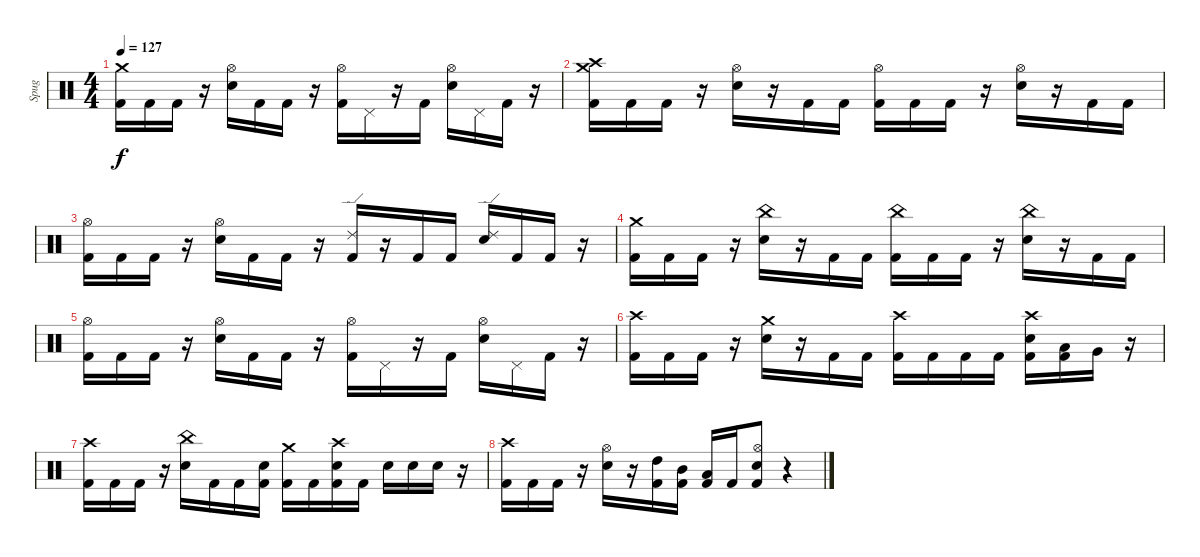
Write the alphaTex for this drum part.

\track ("Spug" "Spug") {instrument percussion}
\staff {score}
\articulation defaults
\ts (4 4)
\tempo 127
\clef neutral
\ks c
("Crash medium (hit)" "Kick (hit) 2").16{dy f} "Kick (hit) 2".16 "Kick (hit) 2".16 r.16 ("Hi-Hat (open)" "Electric Snare (hit)").16 "Kick (hit) 2".16 "Kick (hit) 2".16 r.16 ("Hi-Hat (open)" "Kick (hit) 2").16 "Pedal Hi-Hat (hit)".16 r.16 "Kick (hit) 2".16 ("Hi-Hat (open)" "Electric Snare (hit)").16 "Pedal Hi-Hat (hit)".16 "Kick (hit) 2".16 r.16 |
("Crash medium (hit)" "Crash high (hit)" "Kick (hit) 2").16 "Kick (hit) 2".16 "Kick (hit) 2".16 r.16 ("Hi-Hat (open)" "Electric Snare (hit)").16 r.16 "Kick (hit) 2".16 "Kick (hit) 2".16 ("Hi-Hat (open)" "Kick (hit) 2").16 "Kick (hit) 2".16 "Kick (hit) 2".16 r.16 ("Hi-Hat (open)" "Electric Snare (hit)").16 r.16 "Kick (hit) 2".16 "Kick (hit) 2".16 |
("Hi-Hat (open)" "Kick (hit) 2").16 "Kick (hit) 2".16 "Kick (hit) 2".16 r.16 ("Hi-Hat (open)" "Electric Snare (hit)").16 "Kick (hit) 2".16 "Kick (hit) 2".16 r.16 ("Ride (edge) 2" "Kick (hit) 2").16 r.16 "Kick (hit) 2".16 "Kick (hit) 2".16 ("Ride (edge) 2" "Electric Snare (hit)").16 "Kick (hit) 2".16 "Kick (hit) 2".16 r.16 |
("Crash medium (hit)" "Kick (hit) 2").16 "Kick (hit) 2".16 "Kick (hit) 2".16 r.16 ("China (hit)" "Electric Snare (hit)").16 r.16 "Kick (hit) 2".16 "Kick (hit) 2".16 ("China (hit)" "Kick (hit) 2").16 "Kick (hit) 2".16 "Kick (hit) 2".16 r.16 ("China (hit)" "Electric Snare (hit)").16 r.16 "Kick (hit) 2".16 "Kick (hit) 2".16 |
("Hi-Hat (open)" "Kick (hit) 2").16 "Kick (hit) 2".16 "Kick (hit) 2".16 r.16 ("Hi-Hat (open)" "Electric Snare (hit)").16 "Kick (hit) 2".16 "Kick (hit) 2".16 r.16 ("Hi-Hat (open)" "Kick (hit) 2").16 "Pedal Hi-Hat (hit)".16 r.16 "Kick (hit) 2".16 ("Hi-Hat (open)" "Electric Snare (hit)").16 "Pedal Hi-Hat (hit)".16 "Kick (hit) 2".16 r.16 |
("Crash high (hit)" "Kick (hit) 2").16 "Kick (hit) 2".16 "Kick (hit) 2".16 r.16 ("Crash medium (hit)" "Electric Snare (hit)").16 r.16 "Kick (hit) 2".16 "Kick (hit) 2".16 ("Crash high (hit)" "Kick (hit) 2").16 "Kick (hit) 2".16 "Kick (hit) 2".16 "Kick (hit) 2".16 ("Crash high (hit)" "Electric Snare (hit)" "Kick (hit) 2").16 ("Low Tom (hit)" "Kick (hit) 2").16 "Very Low Tom (hit)".16 r.16 |
("Crash high (hit)" "Kick (hit) 2").16 "Kick (hit) 2".16 "Kick (hit) 2".16 r.16 ("China (hit)" "Electric Snare (hit)").16 "Kick (hit) 2".16 "Kick (hit) 2".16 ("Electric Snare (hit)" "Kick (hit) 2").16 ("Crash medium (hit)" "Kick (hit) 2").16 "Kick (hit) 2".16 ("Crash high (hit)" "Electric Snare (hit)" "Kick (hit) 2").16 "Kick (hit) 2".16 "Electric Snare (hit)".16 "Electric Snare (hit)".16 "Electric Snare (hit)".16 r.16 |
("Crash high (hit)" "Kick (hit) 2").16 "Kick (hit) 2".16 "Kick (hit) 2".16 r.16 ("Hi-Hat (open)" "Electric Snare (hit)").16 r.16 ("High Tom (hit)" "Kick (hit) 2").16 ("Mid Tom (hit)" "Kick (hit) 2").16 ("Low Tom (hit)" "Kick (hit) 2").16 "Kick (hit) 2".16 ("Hi-Hat (open)" "Electric Snare (hit)" "Kick (hit) 2").8 r.4
